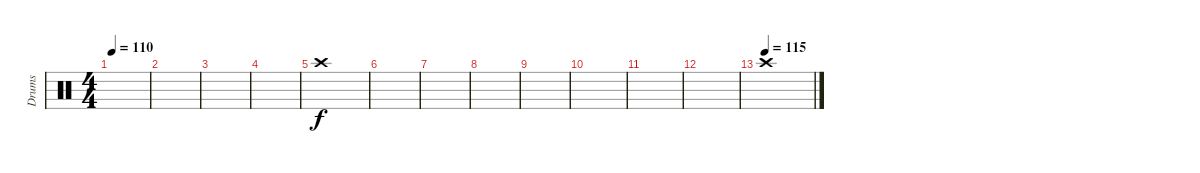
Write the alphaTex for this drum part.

\track ("Drums" "Drums") {instrument percussion}
\staff {score}
\articulation defaults
\ts (4 4)
\tempo 110
\clef neutral
\ks c
|
|
|
|
"Crash high (hit)".1 |
|
|
|
|
|
|
|
\tempo (115)
"Crash high (hit)".1
